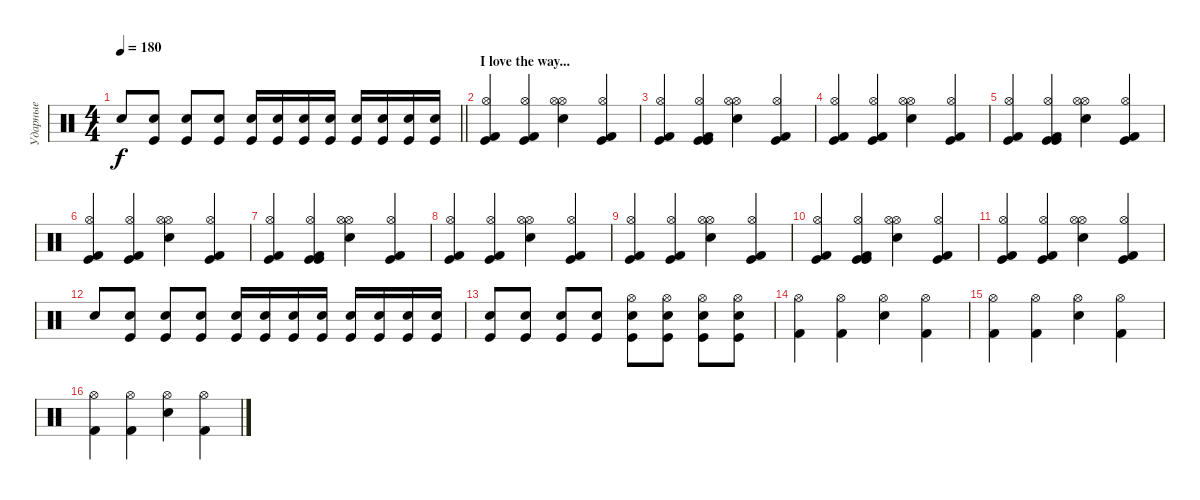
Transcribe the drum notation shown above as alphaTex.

\track ("Ударные" "Ударные") {instrument percussion}
\staff {score}
\articulation defaults
\ts (4 4)
\tempo 180
\clef neutral
\barLineRight lightlight
\ks c "Snare (hit) 2".8{dy f}
("Kick (hit)" "Snare (hit) 2").8 ("Snare (hit) 2" "Kick (hit)").8 ("Kick (hit)" "Snare (hit) 2").8 ("Snare (hit) 2" "Kick (hit)").16 ("Kick (hit)" "Snare (hit) 2").16 ("Snare (hit) 2" "Kick (hit)").16 ("Kick (hit)" "Snare (hit) 2").16 ("Snare (hit) 2" "Kick (hit)").16 ("Kick (hit)" "Snare (hit) 2").16 ("Snare (hit) 2" "Kick (hit)").16 ("Kick (hit)" "Snare (hit) 2").16 |
\section ("" "I love the way...")
("Hi-Hat (open)" "Kick (hit) 2" "Kick (hit)").4 ("Hi-Hat (open)" "Kick (hit) 2" "Kick (hit)").4 ("Electric Snare (hit)" "Hi-Hat (open)" "Hi-Hat (open)").4 ("Hi-Hat (open)" "Kick (hit) 2" "Kick (hit)").4 |
("Hi-Hat (open)" "Kick (hit) 2" "Kick (hit)").4 ("Hi-Hat (open)" "Kick (hit) 2" "Kick (hit)" "Kick (hit)").4 ("Electric Snare (hit)" "Hi-Hat (open)" "Hi-Hat (open)").4 ("Hi-Hat (open)" "Kick (hit) 2" "Kick (hit)").4 |
("Hi-Hat (open)" "Kick (hit) 2" "Kick (hit)").4 ("Hi-Hat (open)" "Kick (hit) 2" "Kick (hit)").4 ("Electric Snare (hit)" "Hi-Hat (open)" "Hi-Hat (open)").4 ("Hi-Hat (open)" "Kick (hit) 2" "Kick (hit)").4 |
("Hi-Hat (open)" "Kick (hit) 2" "Kick (hit)").4 ("Hi-Hat (open)" "Kick (hit) 2" "Kick (hit)" "Kick (hit)").4 ("Electric Snare (hit)" "Hi-Hat (open)" "Hi-Hat (open)").4 ("Hi-Hat (open)" "Kick (hit) 2" "Kick (hit)").4 |
("Hi-Hat (open)" "Kick (hit) 2" "Kick (hit)").4 ("Hi-Hat (open)" "Kick (hit) 2" "Kick (hit)").4 ("Electric Snare (hit)" "Hi-Hat (open)" "Hi-Hat (open)").4 ("Hi-Hat (open)" "Kick (hit) 2" "Kick (hit)").4 |
("Hi-Hat (open)" "Kick (hit) 2" "Kick (hit)").4 ("Hi-Hat (open)" "Kick (hit) 2" "Kick (hit)" "Kick (hit)").4 ("Electric Snare (hit)" "Hi-Hat (open)" "Hi-Hat (open)").4 ("Hi-Hat (open)" "Kick (hit) 2" "Kick (hit)").4 |
("Hi-Hat (open)" "Kick (hit) 2" "Kick (hit)").4 ("Hi-Hat (open)" "Kick (hit) 2" "Kick (hit)").4 ("Electric Snare (hit)" "Hi-Hat (open)" "Hi-Hat (open)").4 ("Hi-Hat (open)" "Kick (hit) 2" "Kick (hit)").4 |
("Hi-Hat (open)" "Kick (hit) 2" "Kick (hit)").4 ("Hi-Hat (open)" "Kick (hit) 2" "Kick (hit)").4 ("Electric Snare (hit)" "Hi-Hat (open)" "Hi-Hat (open)").4 ("Hi-Hat (open)" "Kick (hit) 2" "Kick (hit)").4 |
("Hi-Hat (open)" "Kick (hit) 2" "Kick (hit)").4 ("Hi-Hat (open)" "Kick (hit) 2" "Kick (hit)" "Kick (hit)").4 ("Electric Snare (hit)" "Hi-Hat (open)" "Hi-Hat (open)").4 ("Hi-Hat (open)" "Kick (hit) 2" "Kick (hit)").4 |
("Hi-Hat (open)" "Kick (hit) 2" "Kick (hit)").4 ("Hi-Hat (open)" "Kick (hit) 2" "Kick (hit)").4 ("Electric Snare (hit)" "Hi-Hat (open)" "Hi-Hat (open)").4 ("Hi-Hat (open)" "Kick (hit) 2" "Kick (hit)").4 |
"Snare (hit) 2".8 ("Kick (hit)" "Snare (hit) 2").8 ("Snare (hit) 2" "Kick (hit)").8 ("Kick (hit)" "Snare (hit) 2").8 ("Snare (hit) 2" "Kick (hit)").16 ("Kick (hit)" "Snare (hit) 2").16 ("Snare (hit) 2" "Kick (hit)").16 ("Kick (hit)" "Snare (hit) 2").16 ("Snare (hit) 2" "Kick (hit)").16 ("Kick (hit)" "Snare (hit) 2").16 ("Snare (hit) 2" "Kick (hit)").16 ("Kick (hit)" "Snare (hit) 2").16 |
("Snare (hit) 2" "Kick (hit)").8 ("Kick (hit)" "Snare (hit) 2").8 ("Snare (hit) 2" "Kick (hit)").8 ("Kick (hit)" "Snare (hit) 2").8 ("Snare (hit) 2" "Kick (hit)" "Hi-Hat (open)").8 ("Hi-Hat (open)" "Kick (hit)" "Snare (hit) 2").8 ("Snare (hit) 2" "Kick (hit)" "Hi-Hat (open)").8 ("Hi-Hat (open)" "Kick (hit)" "Snare (hit) 2").8 |
("Hi-Hat (open)" "Kick (hit) 2").4 ("Hi-Hat (open)" "Kick (hit) 2").4 ("Electric Snare (hit)" "Hi-Hat (open)").4 ("Hi-Hat (open)" "Kick (hit) 2").4 |
("Hi-Hat (open)" "Kick (hit) 2").4 ("Hi-Hat (open)" "Kick (hit) 2").4 ("Electric Snare (hit)" "Hi-Hat (open)").4 ("Hi-Hat (open)" "Kick (hit) 2").4 |
("Hi-Hat (open)" "Kick (hit) 2").4 ("Hi-Hat (open)" "Kick (hit) 2").4 ("Electric Snare (hit)" "Hi-Hat (open)").4 ("Hi-Hat (open)" "Kick (hit) 2").4
